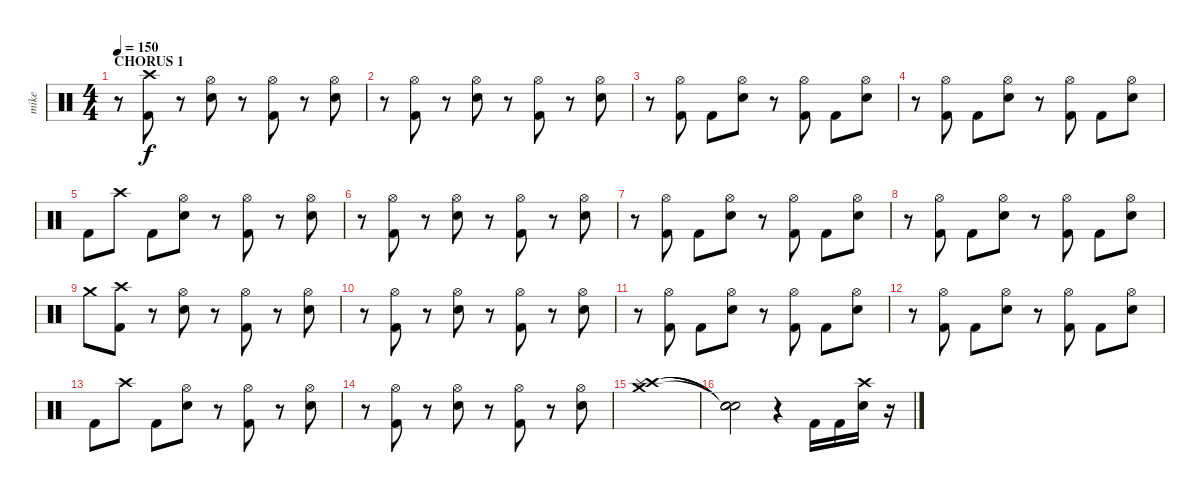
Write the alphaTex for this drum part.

\track ("mike" "mike") {instrument percussion}
\staff {score}
\articulation defaults
\ts (4 4)
\section ("" "CHORUS 1")
\tempo 150
\clef neutral
\ks c
r.8{dy f} ("Crash high (hit)" "Kick (hit) 2").8 r.8 ("Hi-Hat (open)" "Electric Snare (hit)").8 r.8 ("Hi-Hat (open)" "Kick (hit) 2").8 r.8 ("Hi-Hat (open)" "Electric Snare (hit)").8 |
r.8 ("Hi-Hat (open)" "Kick (hit) 2").8 r.8 ("Hi-Hat (open)" "Electric Snare (hit)").8 r.8 ("Hi-Hat (open)" "Kick (hit) 2").8 r.8 ("Hi-Hat (open)" "Electric Snare (hit)").8 |
r.8 ("Hi-Hat (open)" "Kick (hit) 2").8 "Kick (hit) 2".8 ("Hi-Hat (open)" "Electric Snare (hit)").8 r.8 ("Hi-Hat (open)" "Kick (hit) 2").8 "Kick (hit) 2".8 ("Hi-Hat (open)" "Electric Snare (hit)").8 |
r.8 ("Hi-Hat (open)" "Kick (hit) 2").8 "Kick (hit) 2".8 ("Hi-Hat (open)" "Electric Snare (hit)").8 r.8 ("Hi-Hat (open)" "Kick (hit) 2").8 "Kick (hit) 2".8 ("Hi-Hat (open)" "Electric Snare (hit)").8 |
"Kick (hit) 2".8 "Crash high (hit)".8 "Kick (hit) 2".8 ("Hi-Hat (open)" "Electric Snare (hit)").8 r.8 ("Hi-Hat (open)" "Kick (hit) 2").8 r.8 ("Hi-Hat (open)" "Electric Snare (hit)").8 |
r.8 ("Hi-Hat (open)" "Kick (hit) 2").8 r.8 ("Hi-Hat (open)" "Electric Snare (hit)").8 r.8 ("Hi-Hat (open)" "Kick (hit) 2").8 r.8 ("Hi-Hat (open)" "Electric Snare (hit)").8 |
r.8 ("Hi-Hat (open)" "Kick (hit) 2").8 "Kick (hit) 2".8 ("Hi-Hat (open)" "Electric Snare (hit)").8 r.8 ("Hi-Hat (open)" "Kick (hit) 2").8 "Kick (hit) 2".8 ("Hi-Hat (open)" "Electric Snare (hit)").8 |
r.8 ("Hi-Hat (open)" "Kick (hit) 2").8 "Kick (hit) 2".8 ("Hi-Hat (open)" "Electric Snare (hit)").8 r.8 ("Hi-Hat (open)" "Kick (hit) 2").8 "Kick (hit) 2".8 ("Hi-Hat (open)" "Electric Snare (hit)").8 |
"Crash medium (hit)".8 ("Crash high (hit)" "Kick (hit) 2").8 r.8 ("Hi-Hat (open)" "Electric Snare (hit)").8 r.8 ("Hi-Hat (open)" "Kick (hit) 2").8 r.8 ("Hi-Hat (open)" "Electric Snare (hit)").8 |
r.8 ("Hi-Hat (open)" "Kick (hit) 2").8 r.8 ("Hi-Hat (open)" "Electric Snare (hit)").8 r.8 ("Hi-Hat (open)" "Kick (hit) 2").8 r.8 ("Hi-Hat (open)" "Electric Snare (hit)").8 |
r.8 ("Hi-Hat (open)" "Kick (hit) 2").8 "Kick (hit) 2".8 ("Hi-Hat (open)" "Electric Snare (hit)").8 r.8 ("Hi-Hat (open)" "Kick (hit) 2").8 "Kick (hit) 2".8 ("Hi-Hat (open)" "Electric Snare (hit)").8 |
r.8 ("Hi-Hat (open)" "Kick (hit) 2").8 "Kick (hit) 2".8 ("Hi-Hat (open)" "Electric Snare (hit)").8 r.8 ("Hi-Hat (open)" "Kick (hit) 2").8 "Kick (hit) 2".8 ("Hi-Hat (open)" "Electric Snare (hit)").8 |
"Kick (hit) 2".8 "Crash high (hit)".8 "Kick (hit) 2".8 ("Hi-Hat (open)" "Electric Snare (hit)").8 r.8 ("Hi-Hat (open)" "Kick (hit) 2").8 r.8 ("Hi-Hat (open)" "Electric Snare (hit)").8 |
r.8 ("Hi-Hat (open)" "Kick (hit) 2").8 r.8 ("Hi-Hat (open)" "Electric Snare (hit)").8 r.8 ("Hi-Hat (open)" "Kick (hit) 2").8 r.8 ("Hi-Hat (open)" "Electric Snare (hit)").8 |
("Crash high (hit)" "Crash medium (hit)" "Splash (hit)").1 |
("Snare (hit)"{t} "Snare (hit)"{t} "Snare (hit)"{t}).2 r.4 "Kick (hit) 2".16 "Kick (hit) 2".16 ("Crash high (hit)" "Electric Snare (hit)").16 r.16
